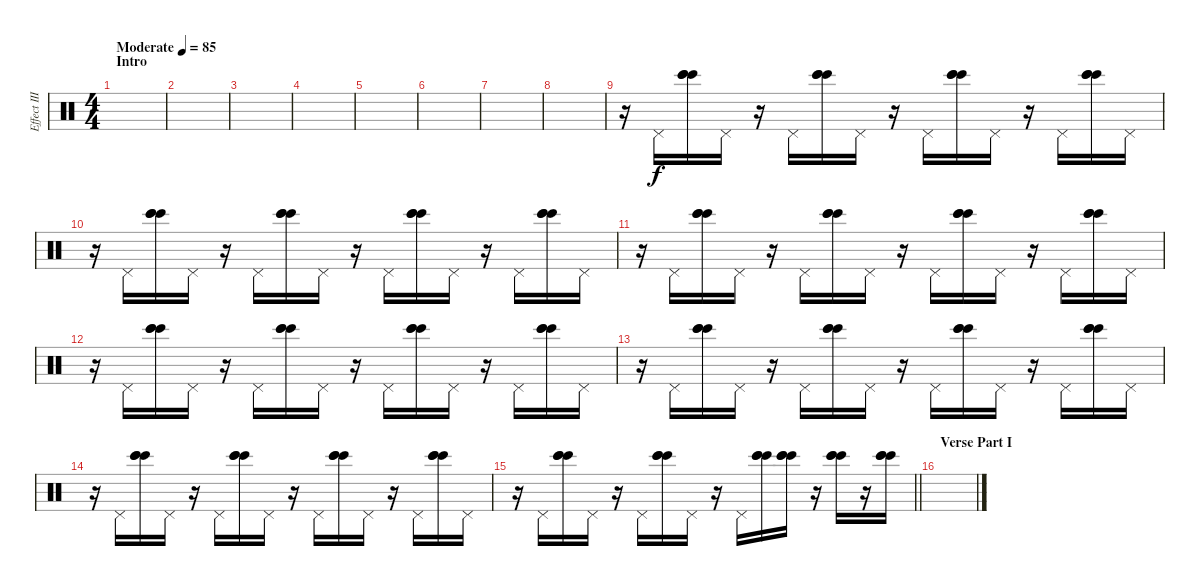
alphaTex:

\track ("Effect III" "Effect III") {instrument percussion}
\staff {score}
\articulation defaults
\ts (4 4)
\section ("" "Intro")
\tempo (85 "Moderate")
\clef neutral
\ks c
|
|
|
|
|
|
|
|
r.16 "Pedal Hi-Hat (hit)".16 ("Bongo High (hit)" "Bongo High (hit)" "Bongo High (hit)").16 "Pedal Hi-Hat (hit)".16 r.16 "Pedal Hi-Hat (hit)".16 ("Bongo High (hit)" "Bongo High (hit)" "Bongo High (hit)").16 "Pedal Hi-Hat (hit)".16 r.16 "Pedal Hi-Hat (hit)".16 ("Bongo High (hit)" "Bongo High (hit)" "Bongo High (hit)").16 "Pedal Hi-Hat (hit)".16 r.16 "Pedal Hi-Hat (hit)".16 ("Bongo High (hit)" "Bongo High (hit)" "Bongo High (hit)").16 "Pedal Hi-Hat (hit)".16 |
r.16 "Pedal Hi-Hat (hit)".16 ("Bongo High (hit)" "Bongo High (hit)" "Bongo High (hit)").16 "Pedal Hi-Hat (hit)".16 r.16 "Pedal Hi-Hat (hit)".16 ("Bongo High (hit)" "Bongo High (hit)" "Bongo High (hit)").16 "Pedal Hi-Hat (hit)".16 r.16 "Pedal Hi-Hat (hit)".16 ("Bongo High (hit)" "Bongo High (hit)" "Bongo High (hit)").16 "Pedal Hi-Hat (hit)".16 r.16 "Pedal Hi-Hat (hit)".16 ("Bongo High (hit)" "Bongo High (hit)" "Bongo High (hit)").16 "Pedal Hi-Hat (hit)".16 |
r.16 "Pedal Hi-Hat (hit)".16 ("Bongo High (hit)" "Bongo High (hit)" "Bongo High (hit)").16 "Pedal Hi-Hat (hit)".16 r.16 "Pedal Hi-Hat (hit)".16 ("Bongo High (hit)" "Bongo High (hit)" "Bongo High (hit)").16 "Pedal Hi-Hat (hit)".16 r.16 "Pedal Hi-Hat (hit)".16 ("Bongo High (hit)" "Bongo High (hit)" "Bongo High (hit)").16 "Pedal Hi-Hat (hit)".16 r.16 "Pedal Hi-Hat (hit)".16 ("Bongo High (hit)" "Bongo High (hit)" "Bongo High (hit)").16 "Pedal Hi-Hat (hit)".16 |
r.16 "Pedal Hi-Hat (hit)".16 ("Bongo High (hit)" "Bongo High (hit)" "Bongo High (hit)").16 "Pedal Hi-Hat (hit)".16 r.16 "Pedal Hi-Hat (hit)".16 ("Bongo High (hit)" "Bongo High (hit)" "Bongo High (hit)").16 "Pedal Hi-Hat (hit)".16 r.16 "Pedal Hi-Hat (hit)".16 ("Bongo High (hit)" "Bongo High (hit)" "Bongo High (hit)").16 "Pedal Hi-Hat (hit)".16 r.16 "Pedal Hi-Hat (hit)".16 ("Bongo High (hit)" "Bongo High (hit)" "Bongo High (hit)").16 "Pedal Hi-Hat (hit)".16 |
r.16 "Pedal Hi-Hat (hit)".16 ("Bongo High (hit)" "Bongo High (hit)" "Bongo High (hit)").16 "Pedal Hi-Hat (hit)".16 r.16 "Pedal Hi-Hat (hit)".16 ("Bongo High (hit)" "Bongo High (hit)" "Bongo High (hit)").16 "Pedal Hi-Hat (hit)".16 r.16 "Pedal Hi-Hat (hit)".16 ("Bongo High (hit)" "Bongo High (hit)" "Bongo High (hit)").16 "Pedal Hi-Hat (hit)".16 r.16 "Pedal Hi-Hat (hit)".16 ("Bongo High (hit)" "Bongo High (hit)" "Bongo High (hit)").16 "Pedal Hi-Hat (hit)".16 |
r.16 "Pedal Hi-Hat (hit)".16 ("Bongo High (hit)" "Bongo High (hit)" "Bongo High (hit)").16 "Pedal Hi-Hat (hit)".16 r.16 "Pedal Hi-Hat (hit)".16 ("Bongo High (hit)" "Bongo High (hit)" "Bongo High (hit)").16 "Pedal Hi-Hat (hit)".16 r.16 "Pedal Hi-Hat (hit)".16 ("Bongo High (hit)" "Bongo High (hit)" "Bongo High (hit)").16 "Pedal Hi-Hat (hit)".16 r.16 "Pedal Hi-Hat (hit)".16 ("Bongo High (hit)" "Bongo High (hit)" "Bongo High (hit)").16 "Pedal Hi-Hat (hit)".16 |
\barLineRight lightlight
r.16 "Pedal Hi-Hat (hit)".16 ("Bongo High (hit)" "Bongo High (hit)" "Bongo High (hit)").16 "Pedal Hi-Hat (hit)".16 r.16 "Pedal Hi-Hat (hit)".16 ("Bongo High (hit)" "Bongo High (hit)" "Bongo High (hit)").16 "Pedal Hi-Hat (hit)".16 r.16 "Pedal Hi-Hat (hit)".16 ("Bongo High (hit)" "Bongo High (hit)" "Bongo High (hit)").16 ("Bongo High (hit)" "Bongo High (hit)" "Bongo High (hit)").16 r.16 ("Bongo High (hit)" "Bongo High (hit)" "Bongo High (hit)").16 r.16 ("Bongo High (hit)" "Bongo High (hit)" "Bongo High (hit)").16 |
\section ("" "Verse Part I")
